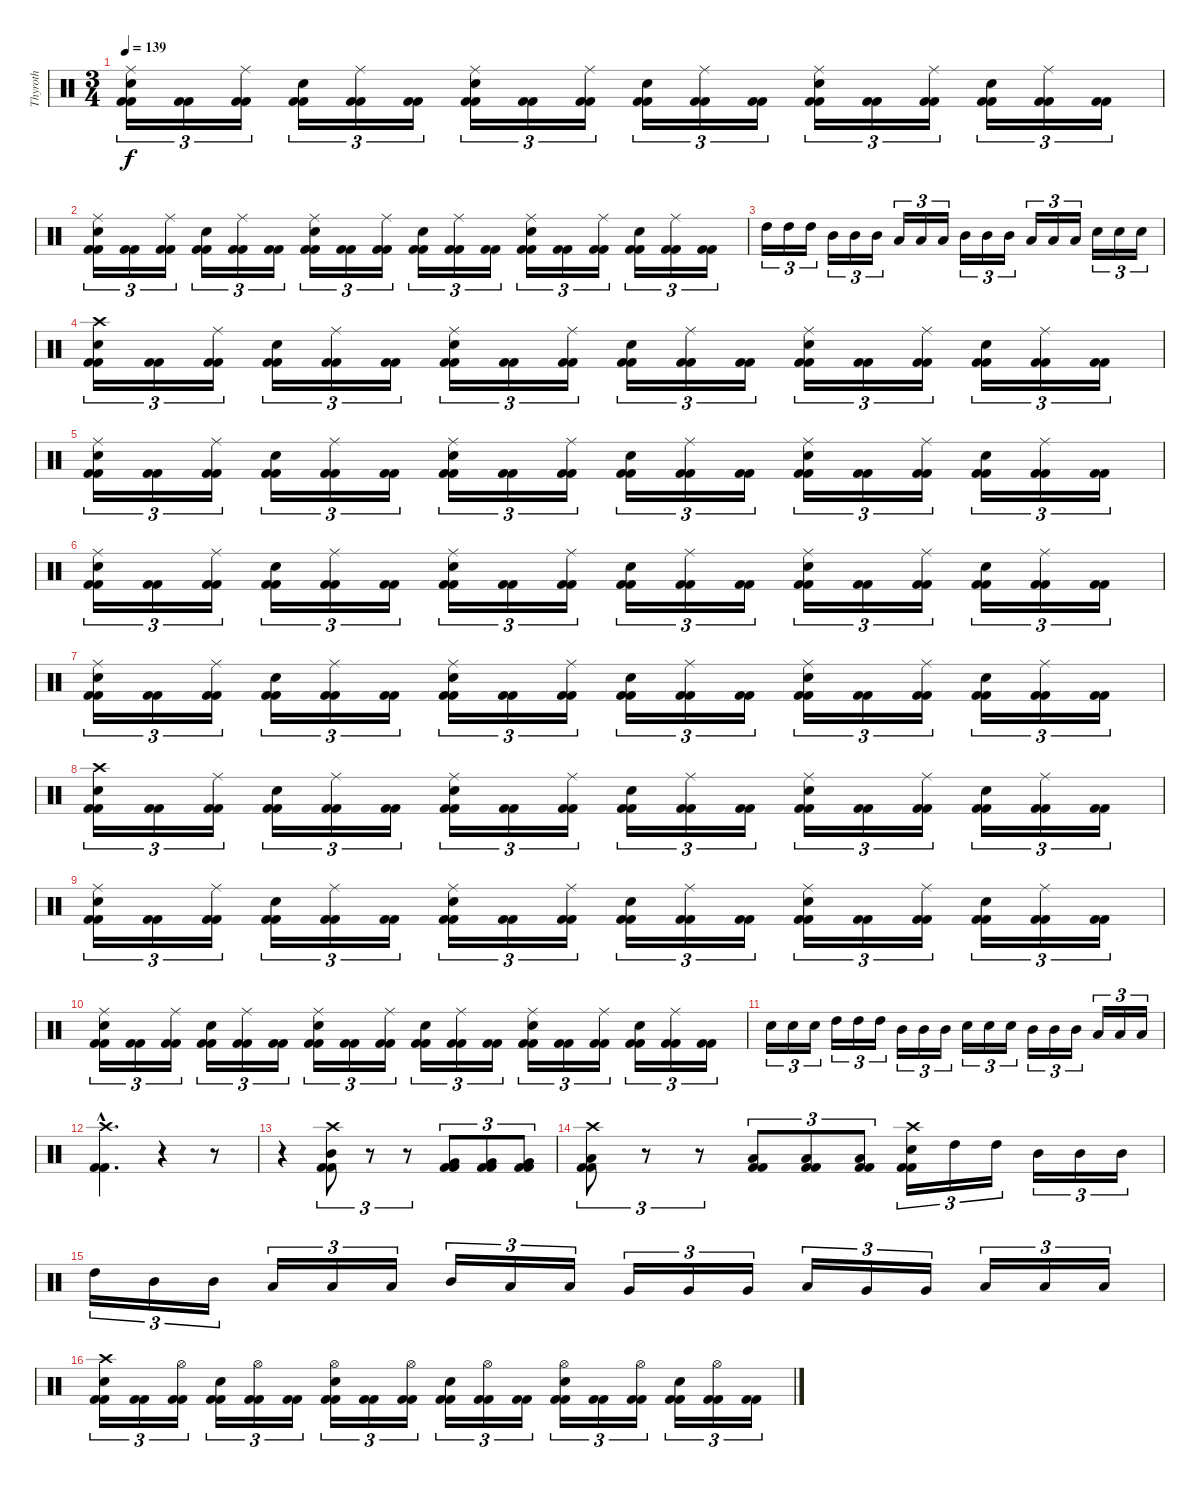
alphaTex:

\track ("Thyroth" "Thyroth") {instrument percussion}
\staff {score}
\articulation defaults
\ts (3 4)
\tempo 139
\clef neutral
\ks c
("Kick (hit) 2" "Kick (hit) 2" "Snare (hit) 2" "Ride (middle)").16{tu (3 2) dy f} ("Kick (hit) 2" "Kick (hit) 2").16{tu (3 2)} ("Kick (hit) 2" "Kick (hit) 2" "Ride (middle)").16{tu (3 2)} ("Kick (hit) 2" "Kick (hit) 2" "Snare (hit) 2").16{tu (3 2)} ("Kick (hit) 2" "Kick (hit) 2" "Ride (middle)").16{tu (3 2)} ("Kick (hit) 2" "Kick (hit) 2").16{tu (3 2)} ("Kick (hit) 2" "Kick (hit) 2" "Snare (hit) 2" "Ride (middle)").16{tu (3 2)} ("Kick (hit) 2" "Kick (hit) 2").16{tu (3 2)} ("Kick (hit) 2" "Kick (hit) 2" "Ride (middle)").16{tu (3 2)} ("Kick (hit) 2" "Kick (hit) 2" "Snare (hit) 2").16{tu (3 2)} ("Kick (hit) 2" "Kick (hit) 2" "Ride (middle)").16{tu (3 2)} ("Kick (hit) 2" "Kick (hit) 2").16{tu (3 2)} ("Kick (hit) 2" "Kick (hit) 2" "Snare (hit) 2" "Ride (middle)").16{tu (3 2)} ("Kick (hit) 2" "Kick (hit) 2").16{tu (3 2)} ("Kick (hit) 2" "Kick (hit) 2" "Ride (middle)").16{tu (3 2)} ("Kick (hit) 2" "Kick (hit) 2" "Snare (hit) 2").16{tu (3 2)} ("Kick (hit) 2" "Kick (hit) 2" "Ride (middle)").16{tu (3 2)} ("Kick (hit) 2" "Kick (hit) 2").16{tu (3 2)} |
("Kick (hit) 2" "Kick (hit) 2" "Snare (hit) 2" "Ride (middle)").16{tu (3 2)} ("Kick (hit) 2" "Kick (hit) 2").16{tu (3 2)} ("Kick (hit) 2" "Kick (hit) 2" "Ride (middle)").16{tu (3 2)} ("Kick (hit) 2" "Kick (hit) 2" "Snare (hit) 2").16{tu (3 2)} ("Kick (hit) 2" "Kick (hit) 2" "Ride (middle)").16{tu (3 2)} ("Kick (hit) 2" "Kick (hit) 2").16{tu (3 2)} ("Kick (hit) 2" "Kick (hit) 2" "Snare (hit) 2" "Ride (middle)").16{tu (3 2)} ("Kick (hit) 2" "Kick (hit) 2").16{tu (3 2)} ("Kick (hit) 2" "Kick (hit) 2" "Ride (middle)").16{tu (3 2)} ("Kick (hit) 2" "Kick (hit) 2" "Snare (hit) 2").16{tu (3 2)} ("Kick (hit) 2" "Kick (hit) 2" "Ride (middle)").16{tu (3 2)} ("Kick (hit) 2" "Kick (hit) 2").16{tu (3 2)} ("Kick (hit) 2" "Kick (hit) 2" "Snare (hit) 2" "Ride (middle)").16{tu (3 2)} ("Kick (hit) 2" "Kick (hit) 2").16{tu (3 2)} ("Kick (hit) 2" "Kick (hit) 2" "Ride (middle)").16{tu (3 2)} ("Kick (hit) 2" "Kick (hit) 2" "Snare (hit) 2").16{tu (3 2)} ("Kick (hit) 2" "Kick (hit) 2" "Ride (middle)").16{tu (3 2)} ("Kick (hit) 2" "Kick (hit) 2").16{tu (3 2)} |
"High Tom (hit)".16{tu (3 2)} "High Tom (hit)".16{tu (3 2)} "High Tom (hit)".16{tu (3 2)} "Mid Tom (hit)".16{tu (3 2)} "Mid Tom (hit)".16{tu (3 2)} "Mid Tom (hit)".16{tu (3 2)} "Low Tom (hit)".16{tu (3 2)} "Low Tom (hit)".16{tu (3 2)} "Low Tom (hit)".16{tu (3 2)} "Mid Tom (hit)".16{tu (3 2)} "Mid Tom (hit)".16{tu (3 2)} "Mid Tom (hit)".16{tu (3 2)} "Low Tom (hit)".16{tu (3 2)} "Low Tom (hit)".16{tu (3 2)} "Low Tom (hit)".16{tu (3 2)} "Snare (hit) 2".16{tu (3 2)} "Snare (hit) 2".16{tu (3 2)} "Snare (hit) 2".16{tu (3 2)} |
("Kick (hit) 2" "Kick (hit) 2" "Snare (hit) 2" "Crash high (hit)").16{tu (3 2)} ("Kick (hit) 2" "Kick (hit) 2").16{tu (3 2)} ("Kick (hit) 2" "Kick (hit) 2" "Ride (middle)").16{tu (3 2)} ("Kick (hit) 2" "Kick (hit) 2" "Snare (hit) 2").16{tu (3 2)} ("Kick (hit) 2" "Kick (hit) 2" "Ride (middle)").16{tu (3 2)} ("Kick (hit) 2" "Kick (hit) 2").16{tu (3 2)} ("Kick (hit) 2" "Kick (hit) 2" "Snare (hit) 2" "Ride (middle)").16{tu (3 2)} ("Kick (hit) 2" "Kick (hit) 2").16{tu (3 2)} ("Kick (hit) 2" "Kick (hit) 2" "Ride (middle)").16{tu (3 2)} ("Kick (hit) 2" "Kick (hit) 2" "Snare (hit) 2").16{tu (3 2)} ("Kick (hit) 2" "Kick (hit) 2" "Ride (middle)").16{tu (3 2)} ("Kick (hit) 2" "Kick (hit) 2").16{tu (3 2)} ("Kick (hit) 2" "Kick (hit) 2" "Snare (hit) 2" "Ride (middle)").16{tu (3 2)} ("Kick (hit) 2" "Kick (hit) 2").16{tu (3 2)} ("Kick (hit) 2" "Kick (hit) 2" "Ride (middle)").16{tu (3 2)} ("Kick (hit) 2" "Kick (hit) 2" "Snare (hit) 2").16{tu (3 2)} ("Kick (hit) 2" "Kick (hit) 2" "Ride (middle)").16{tu (3 2)} ("Kick (hit) 2" "Kick (hit) 2").16{tu (3 2)} |
("Kick (hit) 2" "Kick (hit) 2" "Snare (hit) 2" "Ride (middle)").16{tu (3 2)} ("Kick (hit) 2" "Kick (hit) 2").16{tu (3 2)} ("Kick (hit) 2" "Kick (hit) 2" "Ride (middle)").16{tu (3 2)} ("Kick (hit) 2" "Kick (hit) 2" "Snare (hit) 2").16{tu (3 2)} ("Kick (hit) 2" "Kick (hit) 2" "Ride (middle)").16{tu (3 2)} ("Kick (hit) 2" "Kick (hit) 2").16{tu (3 2)} ("Kick (hit) 2" "Kick (hit) 2" "Snare (hit) 2" "Ride (middle)").16{tu (3 2)} ("Kick (hit) 2" "Kick (hit) 2").16{tu (3 2)} ("Kick (hit) 2" "Kick (hit) 2" "Ride (middle)").16{tu (3 2)} ("Kick (hit) 2" "Kick (hit) 2" "Snare (hit) 2").16{tu (3 2)} ("Kick (hit) 2" "Kick (hit) 2" "Ride (middle)").16{tu (3 2)} ("Kick (hit) 2" "Kick (hit) 2").16{tu (3 2)} ("Kick (hit) 2" "Kick (hit) 2" "Snare (hit) 2" "Ride (middle)").16{tu (3 2)} ("Kick (hit) 2" "Kick (hit) 2").16{tu (3 2)} ("Kick (hit) 2" "Kick (hit) 2" "Ride (middle)").16{tu (3 2)} ("Kick (hit) 2" "Kick (hit) 2" "Snare (hit) 2").16{tu (3 2)} ("Kick (hit) 2" "Kick (hit) 2" "Ride (middle)").16{tu (3 2)} ("Kick (hit) 2" "Kick (hit) 2").16{tu (3 2)} |
("Kick (hit) 2" "Kick (hit) 2" "Snare (hit) 2" "Ride (middle)").16{tu (3 2)} ("Kick (hit) 2" "Kick (hit) 2").16{tu (3 2)} ("Kick (hit) 2" "Kick (hit) 2" "Ride (middle)").16{tu (3 2)} ("Kick (hit) 2" "Kick (hit) 2" "Snare (hit) 2").16{tu (3 2)} ("Kick (hit) 2" "Kick (hit) 2" "Ride (middle)").16{tu (3 2)} ("Kick (hit) 2" "Kick (hit) 2").16{tu (3 2)} ("Kick (hit) 2" "Kick (hit) 2" "Snare (hit) 2" "Ride (middle)").16{tu (3 2)} ("Kick (hit) 2" "Kick (hit) 2").16{tu (3 2)} ("Kick (hit) 2" "Kick (hit) 2" "Ride (middle)").16{tu (3 2)} ("Kick (hit) 2" "Kick (hit) 2" "Snare (hit) 2").16{tu (3 2)} ("Kick (hit) 2" "Kick (hit) 2" "Ride (middle)").16{tu (3 2)} ("Kick (hit) 2" "Kick (hit) 2").16{tu (3 2)} ("Kick (hit) 2" "Kick (hit) 2" "Snare (hit) 2" "Ride (middle)").16{tu (3 2)} ("Kick (hit) 2" "Kick (hit) 2").16{tu (3 2)} ("Kick (hit) 2" "Kick (hit) 2" "Ride (middle)").16{tu (3 2)} ("Kick (hit) 2" "Kick (hit) 2" "Snare (hit) 2").16{tu (3 2)} ("Kick (hit) 2" "Kick (hit) 2" "Ride (middle)").16{tu (3 2)} ("Kick (hit) 2" "Kick (hit) 2").16{tu (3 2)} |
("Kick (hit) 2" "Kick (hit) 2" "Snare (hit) 2" "Ride (middle)").16{tu (3 2)} ("Kick (hit) 2" "Kick (hit) 2").16{tu (3 2)} ("Kick (hit) 2" "Kick (hit) 2" "Ride (middle)").16{tu (3 2)} ("Kick (hit) 2" "Kick (hit) 2" "Snare (hit) 2").16{tu (3 2)} ("Kick (hit) 2" "Kick (hit) 2" "Ride (middle)").16{tu (3 2)} ("Kick (hit) 2" "Kick (hit) 2").16{tu (3 2)} ("Kick (hit) 2" "Kick (hit) 2" "Snare (hit) 2" "Ride (middle)").16{tu (3 2)} ("Kick (hit) 2" "Kick (hit) 2").16{tu (3 2)} ("Kick (hit) 2" "Kick (hit) 2" "Ride (middle)").16{tu (3 2)} ("Kick (hit) 2" "Kick (hit) 2" "Snare (hit) 2").16{tu (3 2)} ("Kick (hit) 2" "Kick (hit) 2" "Ride (middle)").16{tu (3 2)} ("Kick (hit) 2" "Kick (hit) 2").16{tu (3 2)} ("Kick (hit) 2" "Kick (hit) 2" "Snare (hit) 2" "Ride (middle)").16{tu (3 2)} ("Kick (hit) 2" "Kick (hit) 2").16{tu (3 2)} ("Kick (hit) 2" "Kick (hit) 2" "Ride (middle)").16{tu (3 2)} ("Kick (hit) 2" "Kick (hit) 2" "Snare (hit) 2").16{tu (3 2)} ("Kick (hit) 2" "Kick (hit) 2" "Ride (middle)").16{tu (3 2)} ("Kick (hit) 2" "Kick (hit) 2").16{tu (3 2)} |
("Kick (hit) 2" "Kick (hit) 2" "Snare (hit) 2" "Crash high (hit)").16{tu (3 2)} ("Kick (hit) 2" "Kick (hit) 2").16{tu (3 2)} ("Kick (hit) 2" "Kick (hit) 2" "Ride (middle)").16{tu (3 2)} ("Kick (hit) 2" "Kick (hit) 2" "Snare (hit) 2").16{tu (3 2)} ("Kick (hit) 2" "Kick (hit) 2" "Ride (middle)").16{tu (3 2)} ("Kick (hit) 2" "Kick (hit) 2").16{tu (3 2)} ("Kick (hit) 2" "Kick (hit) 2" "Snare (hit) 2" "Ride (middle)").16{tu (3 2)} ("Kick (hit) 2" "Kick (hit) 2").16{tu (3 2)} ("Kick (hit) 2" "Kick (hit) 2" "Ride (middle)").16{tu (3 2)} ("Kick (hit) 2" "Kick (hit) 2" "Snare (hit) 2").16{tu (3 2)} ("Kick (hit) 2" "Kick (hit) 2" "Ride (middle)").16{tu (3 2)} ("Kick (hit) 2" "Kick (hit) 2").16{tu (3 2)} ("Kick (hit) 2" "Kick (hit) 2" "Snare (hit) 2" "Ride (middle)").16{tu (3 2)} ("Kick (hit) 2" "Kick (hit) 2").16{tu (3 2)} ("Kick (hit) 2" "Kick (hit) 2" "Ride (middle)").16{tu (3 2)} ("Kick (hit) 2" "Kick (hit) 2" "Snare (hit) 2").16{tu (3 2)} ("Kick (hit) 2" "Kick (hit) 2" "Ride (middle)").16{tu (3 2)} ("Kick (hit) 2" "Kick (hit) 2").16{tu (3 2)} |
("Kick (hit) 2" "Kick (hit) 2" "Snare (hit) 2" "Ride (middle)").16{tu (3 2)} ("Kick (hit) 2" "Kick (hit) 2").16{tu (3 2)} ("Kick (hit) 2" "Kick (hit) 2" "Ride (middle)").16{tu (3 2)} ("Kick (hit) 2" "Kick (hit) 2" "Snare (hit) 2").16{tu (3 2)} ("Kick (hit) 2" "Kick (hit) 2" "Ride (middle)").16{tu (3 2)} ("Kick (hit) 2" "Kick (hit) 2").16{tu (3 2)} ("Kick (hit) 2" "Kick (hit) 2" "Snare (hit) 2" "Ride (middle)").16{tu (3 2)} ("Kick (hit) 2" "Kick (hit) 2").16{tu (3 2)} ("Kick (hit) 2" "Kick (hit) 2" "Ride (middle)").16{tu (3 2)} ("Kick (hit) 2" "Kick (hit) 2" "Snare (hit) 2").16{tu (3 2)} ("Kick (hit) 2" "Kick (hit) 2" "Ride (middle)").16{tu (3 2)} ("Kick (hit) 2" "Kick (hit) 2").16{tu (3 2)} ("Kick (hit) 2" "Kick (hit) 2" "Snare (hit) 2" "Ride (middle)").16{tu (3 2)} ("Kick (hit) 2" "Kick (hit) 2").16{tu (3 2)} ("Kick (hit) 2" "Kick (hit) 2" "Ride (middle)").16{tu (3 2)} ("Kick (hit) 2" "Kick (hit) 2" "Snare (hit) 2").16{tu (3 2)} ("Kick (hit) 2" "Kick (hit) 2" "Ride (middle)").16{tu (3 2)} ("Kick (hit) 2" "Kick (hit) 2").16{tu (3 2)} |
("Kick (hit) 2" "Kick (hit) 2" "Snare (hit) 2" "Ride (middle)").16{tu (3 2)} ("Kick (hit) 2" "Kick (hit) 2").16{tu (3 2)} ("Kick (hit) 2" "Kick (hit) 2" "Ride (middle)").16{tu (3 2)} ("Kick (hit) 2" "Kick (hit) 2" "Snare (hit) 2").16{tu (3 2)} ("Kick (hit) 2" "Kick (hit) 2" "Ride (middle)").16{tu (3 2)} ("Kick (hit) 2" "Kick (hit) 2").16{tu (3 2)} ("Kick (hit) 2" "Kick (hit) 2" "Snare (hit) 2" "Ride (middle)").16{tu (3 2)} ("Kick (hit) 2" "Kick (hit) 2").16{tu (3 2)} ("Kick (hit) 2" "Kick (hit) 2" "Ride (middle)").16{tu (3 2)} ("Kick (hit) 2" "Kick (hit) 2" "Snare (hit) 2").16{tu (3 2)} ("Kick (hit) 2" "Kick (hit) 2" "Ride (middle)").16{tu (3 2)} ("Kick (hit) 2" "Kick (hit) 2").16{tu (3 2)} ("Kick (hit) 2" "Kick (hit) 2" "Snare (hit) 2" "Ride (middle)").16{tu (3 2)} ("Kick (hit) 2" "Kick (hit) 2").16{tu (3 2)} ("Kick (hit) 2" "Kick (hit) 2" "Ride (middle)").16{tu (3 2)} ("Kick (hit) 2" "Kick (hit) 2" "Snare (hit) 2").16{tu (3 2)} ("Kick (hit) 2" "Kick (hit) 2" "Ride (middle)").16{tu (3 2)} ("Kick (hit) 2" "Kick (hit) 2").16{tu (3 2)} |
"Snare (hit) 2".16{tu (3 2)} "Snare (hit) 2".16{tu (3 2)} "Snare (hit) 2".16{tu (3 2)} "High Tom (hit)".16{tu (3 2)} "High Tom (hit)".16{tu (3 2)} "High Tom (hit)".16{tu (3 2)} "Mid Tom (hit)".16{tu (3 2)} "Mid Tom (hit)".16{tu (3 2)} "Mid Tom (hit)".16{tu (3 2)} "Snare (hit) 2".16{tu (3 2)} "Snare (hit) 2".16{tu (3 2)} "Snare (hit) 2".16{tu (3 2)} "Mid Tom (hit)".16{tu (3 2)} "Mid Tom (hit)".16{tu (3 2)} "Mid Tom (hit)".16{tu (3 2)} "Low Tom (hit)".16{tu (3 2)} "Low Tom (hit)".16{tu (3 2)} "Low Tom (hit)".16{tu (3 2)} |
("Kick (hit) 2"{hac} "Kick (hit) 2"{hac} "Crash high (hit)"{hac}).4{d} r.4 r.8 |
r.4 ("Kick (hit) 2" "Kick (hit) 2" "Mid Tom (hit)" "Crash high (hit)").8{tu (3 2)} r.8{tu (3 2)} r.8{tu (3 2)} ("Kick (hit) 2" "Kick (hit) 2" "Very Low Tom (hit)").8{tu (3 2)} ("Kick (hit) 2" "Kick (hit) 2" "Very Low Tom (hit)").8{tu (3 2)} ("Kick (hit) 2" "Kick (hit) 2" "Very Low Tom (hit)").8{tu (3 2)} |
("Kick (hit) 2" "Kick (hit) 2" "Low Tom (hit)" "Crash high (hit)").8{tu (3 2)} r.8{tu (3 2)} r.8{tu (3 2)} ("Kick (hit) 2" "Kick (hit) 2" "Low Floor Tom (hit)").8{tu (3 2)} ("Kick (hit) 2" "Kick (hit) 2" "Low Floor Tom (hit)").8{tu (3 2)} ("Kick (hit) 2" "Kick (hit) 2" "Low Floor Tom (hit)").8{tu (3 2)} ("Kick (hit) 2" "Kick (hit) 2" "Snare (hit) 2" "Crash high (hit)").16{tu (3 2)} "High Tom (hit)".16{tu (3 2)} "High Tom (hit)".16{tu (3 2)} "Mid Tom (hit)".16{tu (3 2)} "Mid Tom (hit)".16{tu (3 2)} "Mid Tom (hit)".16{tu (3 2)} |
"High Tom (hit)".16{tu (3 2)} "Mid Tom (hit)".16{tu (3 2)} "Mid Tom (hit)".16{tu (3 2)} "Low Tom (hit)".16{tu (3 2)} "Low Tom (hit)".16{tu (3 2)} "Low Tom (hit)".16{tu (3 2)} "Mid Tom (hit)".16{tu (3 2)} "Low Tom (hit)".16{tu (3 2)} "Low Tom (hit)".16{tu (3 2)} "Very Low Tom (hit)".16{tu (3 2)} "Very Low Tom (hit)".16{tu (3 2)} "Very Low Tom (hit)".16{tu (3 2)} "Low Tom (hit)".16{tu (3 2)} "Very Low Tom (hit)".16{tu (3 2)} "Very Low Tom (hit)".16{tu (3 2)} "Low Floor Tom (hit)".16{tu (3 2)} "Low Floor Tom (hit)".16{tu (3 2)} "Low Floor Tom (hit)".16{tu (3 2)} |
("Kick (hit) 2" "Kick (hit) 2" "Snare (hit) 2" "Crash high (hit)").16{tu (3 2)} ("Kick (hit) 2" "Kick (hit) 2").16{tu (3 2)} ("Kick (hit) 2" "Kick (hit) 2" "Hi-Hat (open)").16{tu (3 2)} ("Kick (hit) 2" "Kick (hit) 2" "Snare (hit) 2").16{tu (3 2)} ("Kick (hit) 2" "Kick (hit) 2" "Hi-Hat (open)").16{tu (3 2)} ("Kick (hit) 2" "Kick (hit) 2").16{tu (3 2)} ("Kick (hit) 2" "Kick (hit) 2" "Snare (hit) 2" "Hi-Hat (open)").16{tu (3 2)} ("Kick (hit) 2" "Kick (hit) 2").16{tu (3 2)} ("Kick (hit) 2" "Kick (hit) 2" "Hi-Hat (open)").16{tu (3 2)} ("Kick (hit) 2" "Kick (hit) 2" "Snare (hit) 2").16{tu (3 2)} ("Kick (hit) 2" "Kick (hit) 2" "Hi-Hat (open)").16{tu (3 2)} ("Kick (hit) 2" "Kick (hit) 2").16{tu (3 2)} ("Kick (hit) 2" "Kick (hit) 2" "Snare (hit) 2" "Hi-Hat (open)").16{tu (3 2)} ("Kick (hit) 2" "Kick (hit) 2").16{tu (3 2)} ("Kick (hit) 2" "Kick (hit) 2" "Hi-Hat (open)").16{tu (3 2)} ("Kick (hit) 2" "Kick (hit) 2" "Snare (hit) 2").16{tu (3 2)} ("Kick (hit) 2" "Kick (hit) 2" "Hi-Hat (open)").16{tu (3 2)} ("Kick (hit) 2" "Kick (hit) 2").16{tu (3 2)}
